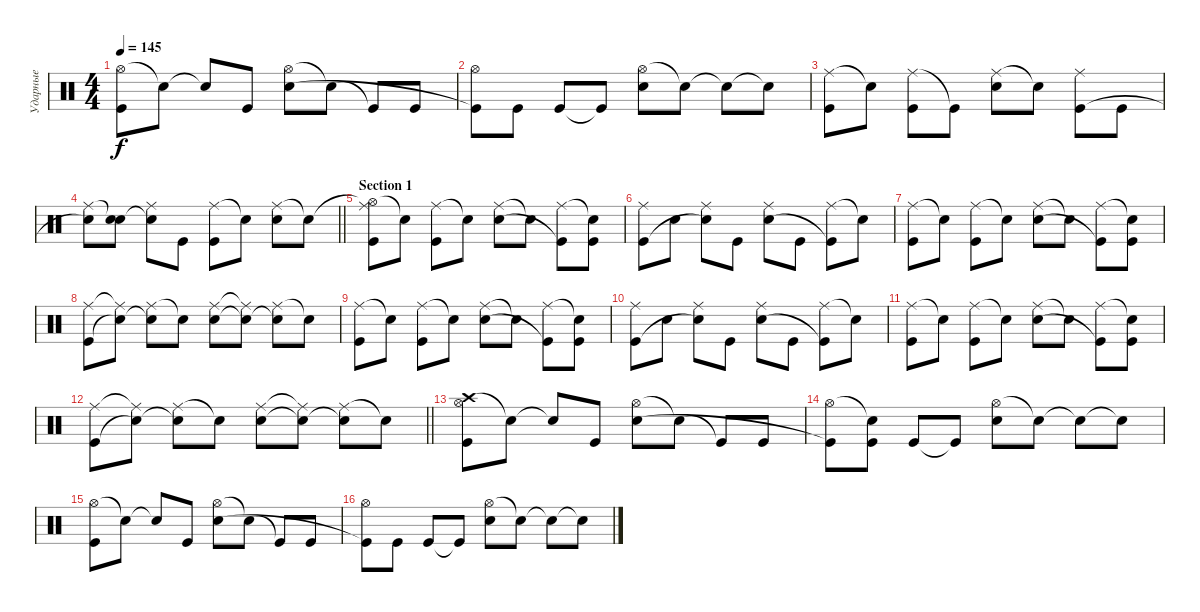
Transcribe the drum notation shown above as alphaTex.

\track ("Ударные" "Ударные") {instrument percussion}
\staff {score}
\articulation defaults
\ts (4 4)
\tempo 145
\clef neutral
\ks c
("Hi-Hat (open)" "Kick (hit)").8{dy f} "Snare (hit)"{t}.8 "Snare (hit)"{t}.8 "Kick (hit)".8 ("Hi-Hat (open)" "Snare (hit) 2").8 "Snare (hit)"{t}.8 "Kick (hit)"{t}.8 "Kick (hit)".8 |
("Hi-Hat (open)" "Kick (hit)"{t}).8 "Kick (hit)".8 "Kick (hit)".8 "Kick (hit)"{t}.8 ("Hi-Hat (open)" "Snare (hit) 2").8 "Snare (hit)"{t}.8 "Snare (hit)"{t}.8 "Snare (hit)"{t}.8 |
("Ride (middle)" "Kick (hit)").8 "Snare (hit)"{t}.8 ("Ride (middle)" "Kick (hit)").8 "Kick (hit)"{t}.8 ("Ride (middle)" "Snare (hit) 2").8 "Snare (hit)"{t}.8 ("Ride (middle)" "Kick (hit)").8 "Kick (hit)".8 |
\barLineRight lightlight
("Ride (middle)" "Snare (hit) 2"{t}).8 ("Snare (hit)"{t} "Snare (hit) 2").8 ("Ride (middle)" "Snare (hit) 2"{t}).8 "Kick (hit)".8 ("Ride (middle)" "Kick (hit)").8 "Snare (hit) 2"{t}.8 ("Ride (middle)" "Snare (hit) 2").8 "Snare (hit)"{t}.8 |
\section ("" "Section 1")
("Hi-Hat (open)"{t} "Ride (middle)" "Kick (hit)").8 "Snare (hit)"{t}.8 ("Ride (middle)" "Kick (hit)").8 "Snare (hit)"{t}.8 ("Ride (middle)" "Snare (hit) 2").8 "Snare (hit)"{t}.8 ("Ride (middle)" "Kick (hit)"{t}).8 ("Snare (hit)"{t} "Kick (hit)").8 |
("Ride (middle)" "Kick (hit)").8 "Snare (hit) 2".8 ("Ride (middle)" "Snare (hit) 2"{t}).8 "Kick (hit)".8 ("Ride (middle)" "Snare (hit) 2").8 "Kick (hit)".8 ("Ride (middle)" "Kick (hit)"{t}).8 "Snare (hit)"{t}.8 |
("Ride (middle)" "Kick (hit)").8 "Snare (hit)"{t}.8 ("Ride (middle)" "Kick (hit)").8 "Snare (hit)"{t}.8 ("Ride (middle)" "Snare (hit) 2").8 "Snare (hit)"{t}.8 ("Ride (middle)" "Kick (hit)"{t}).8 ("Snare (hit)"{t} "Kick (hit)").8 |
("Ride (middle)" "Kick (hit)").8 ("Ride (middle)"{t} "Snare (hit)"{t}).8 ("Ride (middle)" "Snare (hit)"{t}).8 "Snare (hit)"{t}.8 ("Ride (middle)" "Snare (hit) 2").8 ("Ride (middle)"{t} "Snare (hit)"{t}).8 ("Ride (middle)" "Snare (hit)"{t}).8 "Snare (hit)"{t}.8 |
("Ride (middle)" "Kick (hit)").8 "Snare (hit)"{t}.8 ("Ride (middle)" "Kick (hit)").8 "Snare (hit)"{t}.8 ("Ride (middle)" "Snare (hit) 2").8 "Snare (hit)"{t}.8 ("Ride (middle)" "Kick (hit)"{t}).8 ("Snare (hit)"{t} "Kick (hit)").8 |
("Ride (middle)" "Kick (hit)").8 "Snare (hit) 2".8 ("Ride (middle)" "Snare (hit) 2"{t}).8 "Kick (hit)".8 ("Ride (middle)" "Snare (hit) 2").8 "Kick (hit)".8 ("Ride (middle)" "Kick (hit)"{t}).8 "Snare (hit)"{t}.8 |
("Ride (middle)" "Kick (hit)").8 "Snare (hit)"{t}.8 ("Ride (middle)" "Kick (hit)").8 "Snare (hit)"{t}.8 ("Ride (middle)" "Snare (hit) 2").8 "Snare (hit)"{t}.8 ("Ride (middle)" "Kick (hit)"{t}).8 ("Snare (hit)"{t} "Kick (hit)").8 |
\barLineRight lightlight
("Ride (middle)" "Kick (hit)").8 ("Ride (middle)"{t} "Snare (hit)"{t}).8 ("Ride (middle)" "Snare (hit)"{t}).8 "Snare (hit)"{t}.8 ("Ride (middle)" "Snare (hit) 2").8 ("Ride (middle)"{t} "Snare (hit)"{t}).8 ("Ride (middle)" "Snare (hit)"{t}).8 "Snare (hit)"{t}.8 |
("Crash high (hit)" "Hi-Hat (open)" "Kick (hit)").8 "Snare (hit)"{t}.8 "Snare (hit)"{t}.8 "Kick (hit)".8 ("Hi-Hat (open)" "Snare (hit) 2").8 "Snare (hit)"{t}.8 "Kick (hit)"{t}.8 "Kick (hit)".8 |
("Hi-Hat (open)" "Kick (hit)"{t}).8 ("Snare (hit)"{t} "Kick (hit)").8 "Kick (hit)".8 "Kick (hit)"{t}.8 ("Hi-Hat (open)" "Snare (hit) 2").8 "Snare (hit)"{t}.8 "Snare (hit)"{t}.8 "Snare (hit)"{t}.8 |
("Hi-Hat (open)" "Kick (hit)").8 "Snare (hit)"{t}.8 "Snare (hit)"{t}.8 "Kick (hit)".8 ("Hi-Hat (open)" "Snare (hit) 2").8 "Snare (hit)"{t}.8 "Kick (hit)"{t}.8 "Kick (hit)".8 |
("Hi-Hat (open)" "Kick (hit)"{t}).8 "Kick (hit)".8 "Kick (hit)".8 "Kick (hit)"{t}.8 ("Hi-Hat (open)" "Snare (hit) 2").8 "Snare (hit)"{t}.8 "Snare (hit)"{t}.8 "Snare (hit)"{t}.8
